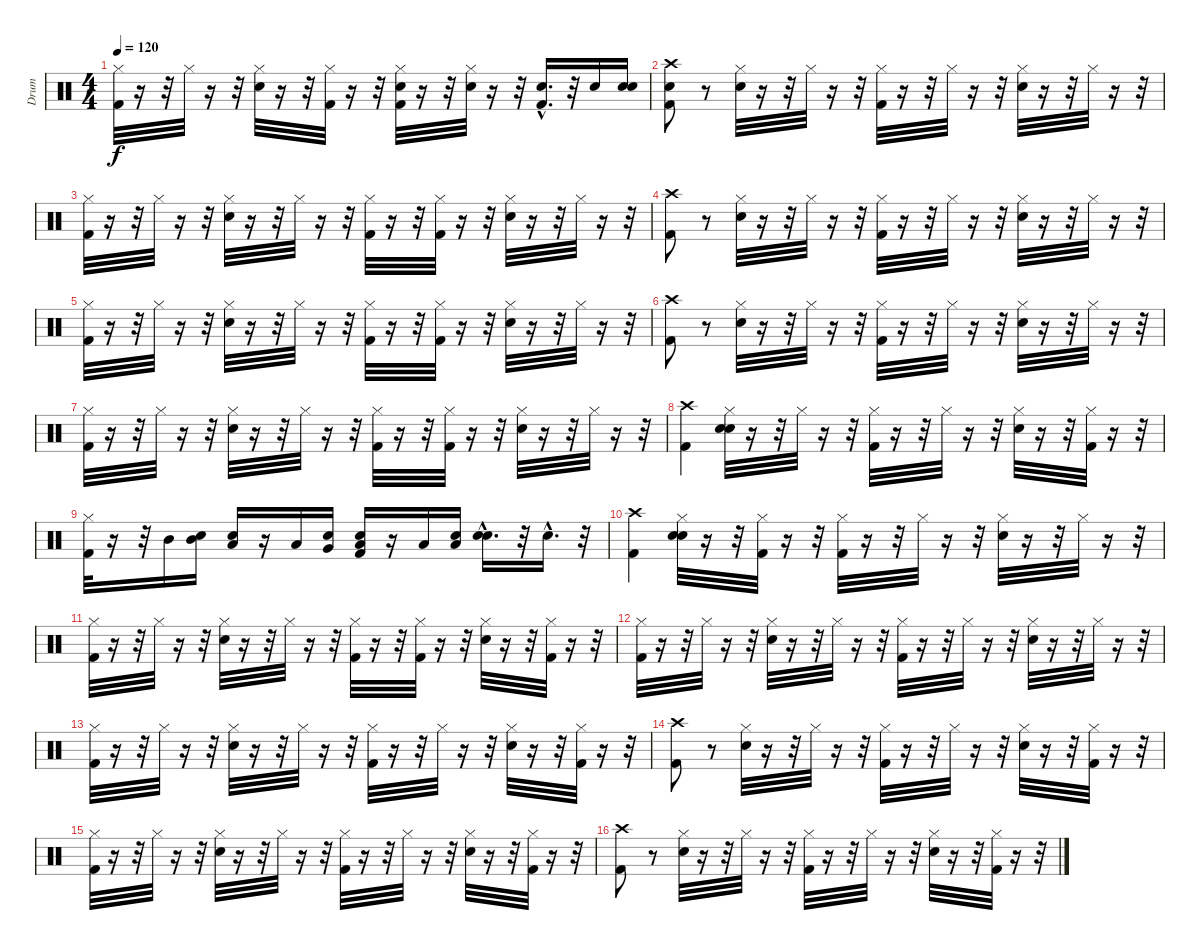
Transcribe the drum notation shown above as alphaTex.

\track ("Drum" "Drum") {instrument percussion}
\staff {score}
\articulation defaults
\ts (4 4)
\tempo 120
\clef neutral
\ks c
("Kick (hit) 2" "Hi-Hat (closed)").32{dy f} r.16 r.32 "Hi-Hat (closed)".32 r.16 r.32 ("Snare (hit) 2" "Hi-Hat (closed)").32 r.16 r.32 ("Kick (hit) 2" "Hi-Hat (closed)").32 r.16 r.32 ("Kick (hit) 2" "Snare (hit) 2" "Hi-Hat (closed)").32 r.16 r.32 ("Snare (hit) 2" "Hi-Hat (closed)").32 r.16 r.32 ("Kick (hit) 2"{hac} "Snare (hit) 2"{hac}).16{d} r.32 "Snare (hit) 2".16 ("Snare (hit)" "Snare (hit) 2").16 |
("Snare (hit)" "Kick (hit) 2" "Crash high (hit)").8 r.8 ("Snare (hit) 2" "Hi-Hat (closed)").32 r.16 r.32 "Hi-Hat (closed)".32 r.16 r.32 ("Kick (hit) 2" "Hi-Hat (closed)").32 r.16 r.32 "Hi-Hat (closed)".32 r.16 r.32 ("Snare (hit) 2" "Hi-Hat (closed)").32 r.16 r.32 "Hi-Hat (closed)".32 r.16 r.32 |
("Kick (hit) 2" "Hi-Hat (closed)").32 r.16 r.32 "Hi-Hat (closed)".32 r.16 r.32 ("Snare (hit) 2" "Hi-Hat (closed)").32 r.16 r.32 "Hi-Hat (closed)".32 r.16 r.32 ("Kick (hit) 2" "Hi-Hat (closed)").32 r.16 r.32 ("Kick (hit) 2" "Hi-Hat (closed)").32 r.16 r.32 ("Snare (hit) 2" "Hi-Hat (closed)").32 r.16 r.32 "Hi-Hat (closed)".32 r.16 r.32 |
("Kick (hit) 2" "Crash high (hit)").8 r.8 ("Snare (hit) 2" "Hi-Hat (closed)").32 r.16 r.32 "Hi-Hat (closed)".32 r.16 r.32 ("Kick (hit) 2" "Hi-Hat (closed)").32 r.16 r.32 "Hi-Hat (closed)".32 r.16 r.32 ("Snare (hit) 2" "Hi-Hat (closed)").32 r.16 r.32 "Hi-Hat (closed)".32 r.16 r.32 |
("Kick (hit) 2" "Hi-Hat (closed)").32 r.16 r.32 "Hi-Hat (closed)".32 r.16 r.32 ("Snare (hit) 2" "Hi-Hat (closed)").32 r.16 r.32 "Hi-Hat (closed)".32 r.16 r.32 ("Kick (hit) 2" "Hi-Hat (closed)").32 r.16 r.32 ("Kick (hit) 2" "Hi-Hat (closed)").32 r.16 r.32 ("Snare (hit) 2" "Hi-Hat (closed)").32 r.16 r.32 "Hi-Hat (closed)".32 r.16 r.32 |
("Kick (hit) 2" "Crash high (hit)").8 r.8 ("Snare (hit) 2" "Hi-Hat (closed)").32 r.16 r.32 "Hi-Hat (closed)".32 r.16 r.32 ("Kick (hit) 2" "Hi-Hat (closed)").32 r.16 r.32 "Hi-Hat (closed)".32 r.16 r.32 ("Snare (hit) 2" "Hi-Hat (closed)").32 r.16 r.32 "Hi-Hat (closed)".32 r.16 r.32 |
("Kick (hit) 2" "Hi-Hat (closed)").32 r.16 r.32 "Hi-Hat (closed)".32 r.16 r.32 ("Snare (hit) 2" "Hi-Hat (closed)").32 r.16 r.32 "Hi-Hat (closed)".32 r.16 r.32 ("Kick (hit) 2" "Hi-Hat (closed)").32 r.16 r.32 ("Kick (hit) 2" "Hi-Hat (closed)").32 r.16 r.32 ("Snare (hit) 2" "Hi-Hat (closed)").32 r.16 r.32 "Hi-Hat (closed)".32 r.16 r.32 |
("Kick (hit) 2" "Crash high (hit)").4 ("Snare (hit)" "Snare (hit) 2" "Hi-Hat (closed)").32 r.16 r.32 "Hi-Hat (closed)".32 r.16 r.32 ("Kick (hit) 2" "Hi-Hat (closed)").32 r.16 r.32 "Hi-Hat (closed)".32 r.16 r.32 ("Snare (hit) 2" "Hi-Hat (closed)").32 r.16 r.32 ("Kick (hit) 2" "Hi-Hat (closed)").32 r.16 r.32 |
("Kick (hit) 2" "Hi-Hat (closed)").32 r.16 r.32 "Mid Tom (hit)".16 ("Snare (hit)" "Mid Tom (hit)").16 ("Snare (hit)" "Low Tom (hit)").16 r.16 "Low Tom (hit)".16 ("Snare (hit)" "Very Low Tom (hit)").16 ("Snare (hit)" "Kick (hit) 2" "Low Floor Tom (hit)").16 r.16 "Low Floor Tom (hit)".16 ("Snare (hit)" "Low Floor Tom (hit)").16 ("Snare (hit)"{hac} "Snare (hit) 2"{hac}).16{d} r.32 "Snare (hit) 2"{hac}.16{d} r.32 |
("Kick (hit) 2" "Crash high (hit)").4 ("Snare (hit)" "Snare (hit) 2" "Hi-Hat (closed)").32 r.16 r.32 ("Kick (hit) 2" "Hi-Hat (closed)").32 r.16 r.32 ("Kick (hit) 2" "Hi-Hat (closed)").32 r.16 r.32 "Hi-Hat (closed)".32 r.16 r.32 ("Snare (hit) 2" "Hi-Hat (closed)").32 r.16 r.32 "Hi-Hat (closed)".32 r.16 r.32 |
("Kick (hit) 2" "Hi-Hat (closed)").32 r.16 r.32 "Hi-Hat (closed)".32 r.16 r.32 ("Snare (hit) 2" "Hi-Hat (closed)").32 r.16 r.32 "Hi-Hat (closed)".32 r.16 r.32 ("Kick (hit) 2" "Hi-Hat (closed)").32 r.16 r.32 ("Kick (hit) 2" "Hi-Hat (closed)").32 r.16 r.32 ("Snare (hit) 2" "Hi-Hat (closed)").32 r.16 r.32 ("Kick (hit) 2" "Hi-Hat (closed)").32 r.16 r.32 |
("Kick (hit) 2" "Hi-Hat (closed)").32 r.16 r.32 "Hi-Hat (closed)".32 r.16 r.32 ("Snare (hit) 2" "Hi-Hat (closed)").32 r.16 r.32 "Hi-Hat (closed)".32 r.16 r.32 ("Kick (hit) 2" "Hi-Hat (closed)").32 r.16 r.32 "Hi-Hat (closed)".32 r.16 r.32 ("Snare (hit) 2" "Hi-Hat (closed)").32 r.16 r.32 "Hi-Hat (closed)".32 r.16 r.32 |
("Kick (hit) 2" "Hi-Hat (closed)").32 r.16 r.32 "Hi-Hat (closed)".32 r.16 r.32 ("Snare (hit) 2" "Hi-Hat (closed)").32 r.16 r.32 "Hi-Hat (closed)".32 r.16 r.32 ("Kick (hit) 2" "Hi-Hat (closed)").32 r.16 r.32 "Hi-Hat (closed)".32 r.16 r.32 ("Snare (hit) 2" "Hi-Hat (closed)").32 r.16 r.32 ("Kick (hit) 2" "Hi-Hat (closed)").32 r.16 r.32 |
("Kick (hit) 2" "Crash high (hit)").8 r.8 ("Snare (hit) 2" "Hi-Hat (closed)").32 r.16 r.32 "Hi-Hat (closed)".32 r.16 r.32 ("Kick (hit) 2" "Hi-Hat (closed)").32 r.16 r.32 "Hi-Hat (closed)".32 r.16 r.32 ("Snare (hit) 2" "Hi-Hat (closed)").32 r.16 r.32 ("Kick (hit) 2" "Hi-Hat (closed)").32 r.16 r.32 |
("Kick (hit) 2" "Hi-Hat (closed)").32 r.16 r.32 "Hi-Hat (closed)".32 r.16 r.32 ("Snare (hit) 2" "Hi-Hat (closed)").32 r.16 r.32 "Hi-Hat (closed)".32 r.16 r.32 ("Kick (hit) 2" "Hi-Hat (closed)").32 r.16 r.32 "Hi-Hat (closed)".32 r.16 r.32 ("Snare (hit) 2" "Hi-Hat (closed)").32 r.16 r.32 ("Kick (hit) 2" "Hi-Hat (closed)").32 r.16 r.32 |
("Kick (hit) 2" "Crash high (hit)").8 r.8 ("Snare (hit) 2" "Hi-Hat (closed)").32 r.16 r.32 "Hi-Hat (closed)".32 r.16 r.32 ("Kick (hit) 2" "Hi-Hat (closed)").32 r.16 r.32 "Hi-Hat (closed)".32 r.16 r.32 ("Snare (hit) 2" "Hi-Hat (closed)").32 r.16 r.32 ("Kick (hit) 2" "Hi-Hat (closed)").32 r.16 r.32
